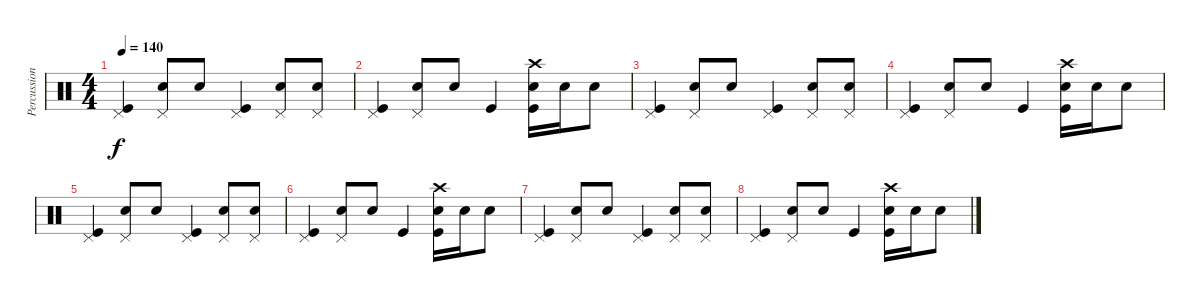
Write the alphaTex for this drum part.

\track ("Percussion" "Percussion") {instrument percussion}
\staff {score}
\articulation defaults
\ts (4 4)
\tempo 140
\clef neutral
\ks c
("Pedal Hi-Hat (hit)" "Kick (hit)").4{dy f} ("Pedal Hi-Hat (hit)" "Snare (hit) 2").8 "Snare (hit) 2".8 ("Pedal Hi-Hat (hit)" "Kick (hit)").4 ("Pedal Hi-Hat (hit)" "Snare (hit) 2").8 ("Pedal Hi-Hat (hit)" "Snare (hit) 2").8 |
("Pedal Hi-Hat (hit)" "Kick (hit)").4 ("Pedal Hi-Hat (hit)" "Snare (hit) 2").8 "Snare (hit) 2".8 "Kick (hit)".4 ("Crash high (hit)" "Kick (hit)" "Snare (hit) 2").16 "Snare (hit) 2".16 "Snare (hit) 2".8 |
("Pedal Hi-Hat (hit)" "Kick (hit)").4 ("Pedal Hi-Hat (hit)" "Snare (hit) 2").8 "Snare (hit) 2".8 ("Pedal Hi-Hat (hit)" "Kick (hit)").4 ("Pedal Hi-Hat (hit)" "Snare (hit) 2").8 ("Pedal Hi-Hat (hit)" "Snare (hit) 2").8 |
("Pedal Hi-Hat (hit)" "Kick (hit)").4 ("Pedal Hi-Hat (hit)" "Snare (hit) 2").8 "Snare (hit) 2".8 "Kick (hit)".4 ("Crash high (hit)" "Kick (hit)" "Snare (hit) 2").16 "Snare (hit) 2".16 "Snare (hit) 2".8 |
("Pedal Hi-Hat (hit)" "Kick (hit)").4 ("Pedal Hi-Hat (hit)" "Snare (hit) 2").8 "Snare (hit) 2".8 ("Pedal Hi-Hat (hit)" "Kick (hit)").4 ("Pedal Hi-Hat (hit)" "Snare (hit) 2").8 ("Pedal Hi-Hat (hit)" "Snare (hit) 2").8 |
("Pedal Hi-Hat (hit)" "Kick (hit)").4 ("Pedal Hi-Hat (hit)" "Snare (hit) 2").8 "Snare (hit) 2".8 "Kick (hit)".4 ("Crash high (hit)" "Kick (hit)" "Snare (hit) 2").16 "Snare (hit) 2".16 "Snare (hit) 2".8 |
("Pedal Hi-Hat (hit)" "Kick (hit)").4 ("Pedal Hi-Hat (hit)" "Snare (hit) 2").8 "Snare (hit) 2".8 ("Pedal Hi-Hat (hit)" "Kick (hit)").4 ("Pedal Hi-Hat (hit)" "Snare (hit) 2").8 ("Pedal Hi-Hat (hit)" "Snare (hit) 2").8 |
("Pedal Hi-Hat (hit)" "Kick (hit)").4 ("Pedal Hi-Hat (hit)" "Snare (hit) 2").8 "Snare (hit) 2".8 "Kick (hit)".4 ("Crash high (hit)" "Kick (hit)" "Snare (hit) 2").16 "Snare (hit) 2".16 "Snare (hit) 2".8
